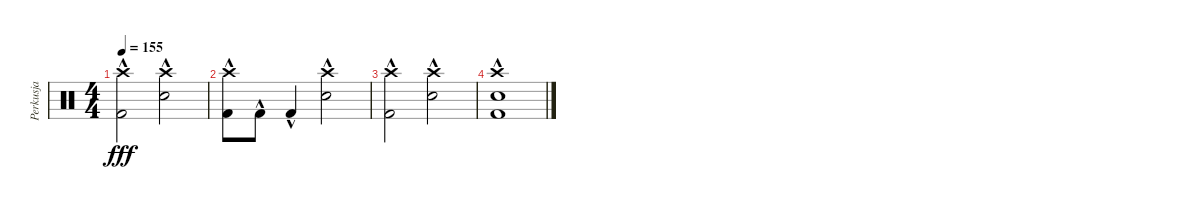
\track ("Perkusja" "Perkusja") {instrument percussion}
\staff {score}
\articulation defaults
\ts (4 4)
\tempo 155
\clef neutral
\ks c
("Crash high (hit)" "Kick (hit) 2"{hac}).2{dy fff} ("Crash high (hit)" "Electric Snare (hit)"{hac}).2 |
("Crash high (hit)" "Kick (hit) 2"{hac}).8 "Kick (hit) 2"{hac}.8 "Kick (hit) 2"{hac}.4 ("Crash high (hit)" "Electric Snare (hit)"{hac}).2 |
("Crash high (hit)" "Kick (hit) 2"{hac}).2 ("Crash high (hit)" "Electric Snare (hit)"{hac}).2 |
("Crash high (hit)" "Electric Snare (hit)" "Kick (hit) 2"{hac}).1
